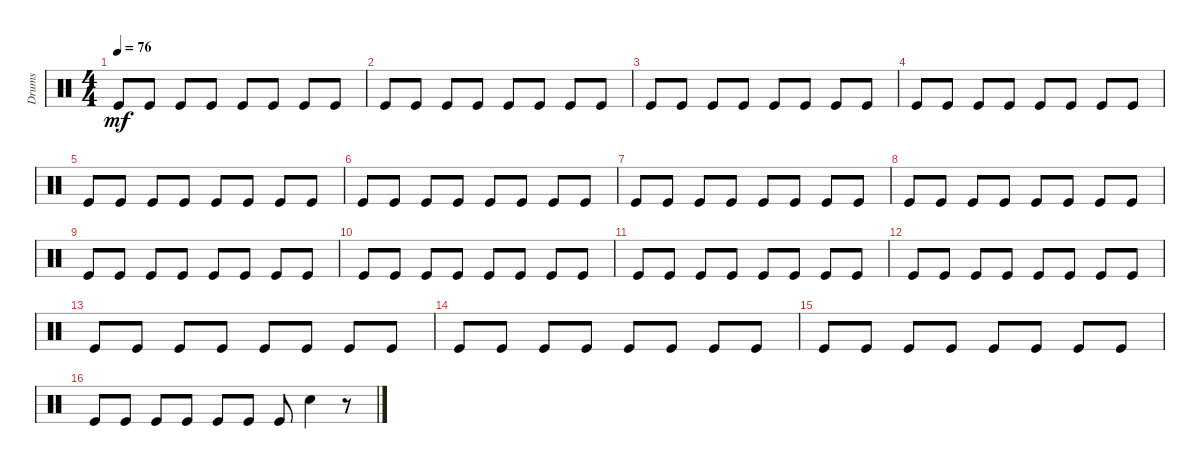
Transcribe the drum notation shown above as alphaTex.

\track ("Drumkit" "Drums") {instrument percussion}
\staff {score}
\articulation defaults
\ts (4 4)
\tempo 76
\clef neutral
\ks c "Kick (hit)".8{dy mf} "Kick (hit)".8 "Kick (hit)".8 "Kick (hit)".8 "Kick (hit)".8 "Kick (hit)".8 "Kick (hit)".8 "Kick (hit)".8
|
"Kick (hit)".8 "Kick (hit)".8 "Kick (hit)".8 "Kick (hit)".8 "Kick (hit)".8 "Kick (hit)".8 "Kick (hit)".8 "Kick (hit)".8 |
"Kick (hit)".8 "Kick (hit)".8 "Kick (hit)".8 "Kick (hit)".8 "Kick (hit)".8 "Kick (hit)".8 "Kick (hit)".8 "Kick (hit)".8 |
"Kick (hit)".8 "Kick (hit)".8 "Kick (hit)".8 "Kick (hit)".8 "Kick (hit)".8 "Kick (hit)".8 "Kick (hit)".8 "Kick (hit)".8 |
"Kick (hit)".8 "Kick (hit)".8 "Kick (hit)".8 "Kick (hit)".8 "Kick (hit)".8 "Kick (hit)".8 "Kick (hit)".8 "Kick (hit)".8 |
"Kick (hit)".8 "Kick (hit)".8 "Kick (hit)".8 "Kick (hit)".8 "Kick (hit)".8 "Kick (hit)".8 "Kick (hit)".8 "Kick (hit)".8 |
"Kick (hit)".8 "Kick (hit)".8 "Kick (hit)".8 "Kick (hit)".8 "Kick (hit)".8 "Kick (hit)".8 "Kick (hit)".8 "Kick (hit)".8 |
"Kick (hit)".8 "Kick (hit)".8 "Kick (hit)".8 "Kick (hit)".8 "Kick (hit)".8 "Kick (hit)".8 "Kick (hit)".8 "Kick (hit)".8 |
"Kick (hit)".8 "Kick (hit)".8 "Kick (hit)".8 "Kick (hit)".8 "Kick (hit)".8 "Kick (hit)".8 "Kick (hit)".8 "Kick (hit)".8 |
"Kick (hit)".8 "Kick (hit)".8 "Kick (hit)".8 "Kick (hit)".8 "Kick (hit)".8 "Kick (hit)".8 "Kick (hit)".8 "Kick (hit)".8 |
"Kick (hit)".8 "Kick (hit)".8 "Kick (hit)".8 "Kick (hit)".8 "Kick (hit)".8 "Kick (hit)".8 "Kick (hit)".8 "Kick (hit)".8 |
"Kick (hit)".8 "Kick (hit)".8 "Kick (hit)".8 "Kick (hit)".8 "Kick (hit)".8 "Kick (hit)".8 "Kick (hit)".8 "Kick (hit)".8 |
"Kick (hit)".8 "Kick (hit)".8 "Kick (hit)".8 "Kick (hit)".8 "Kick (hit)".8 "Kick (hit)".8 "Kick (hit)".8 "Kick (hit)".8 |
"Kick (hit)".8 "Kick (hit)".8 "Kick (hit)".8 "Kick (hit)".8 "Kick (hit)".8 "Kick (hit)".8 "Kick (hit)".8 "Kick (hit)".8 |
"Kick (hit)".8 "Kick (hit)".8 "Kick (hit)".8 "Kick (hit)".8 "Kick (hit)".8 "Kick (hit)".8 "Kick (hit)".8 "Kick (hit)".8 |
"Kick (hit)".8 "Kick (hit)".8 "Kick (hit)".8 "Kick (hit)".8 "Kick (hit)".8 "Kick (hit)".8 "Kick (hit)".8 "Snare (hit) 2".4 r.8
